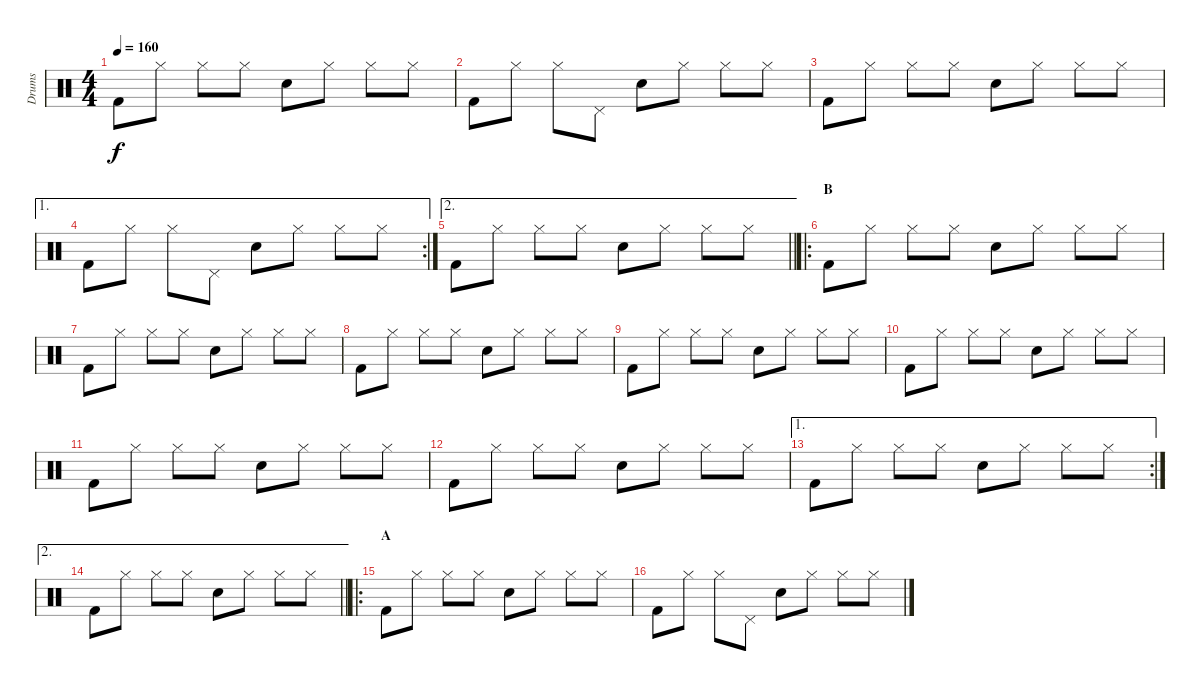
\track ("Drums" "Drums") {instrument percussion}
\staff {score}
\articulation defaults
\ts (4 4)
\tempo 160
\clef neutral
\ks c "Kick (hit) 2".8{dy f} "Hi-Hat (closed)".8 "Hi-Hat (closed)".8 "Hi-Hat (closed)".8 "Electric Snare (hit)".8 "Hi-Hat (closed)".8 "Hi-Hat (closed)".8 "Hi-Hat (closed)".8
|
"Kick (hit) 2".8 "Hi-Hat (closed)".8 "Hi-Hat (closed)".8 "Pedal Hi-Hat (hit)".8 "Electric Snare (hit)".8 "Hi-Hat (closed)".8 "Hi-Hat (closed)".8 "Hi-Hat (closed)".8 |
"Kick (hit) 2".8 "Hi-Hat (closed)".8 "Hi-Hat (closed)".8 "Hi-Hat (closed)".8 "Electric Snare (hit)".8 "Hi-Hat (closed)".8 "Hi-Hat (closed)".8 "Hi-Hat (closed)".8 |
\ae 1
\rc 2 "Kick (hit) 2".8 "Hi-Hat (closed)".8 "Hi-Hat (closed)".8 "Pedal Hi-Hat (hit)".8 "Electric Snare (hit)".8 "Hi-Hat (closed)".8 "Hi-Hat (closed)".8 "Hi-Hat (closed)".8
|
\ae 2
\barLineRight lightlight "Kick (hit) 2".8 "Hi-Hat (closed)".8 "Hi-Hat (closed)".8 "Hi-Hat (closed)".8 "Electric Snare (hit)".8 "Hi-Hat (closed)".8 "Hi-Hat (closed)".8 "Hi-Hat (closed)".8
|
\ro
\section ("" "B")
"Kick (hit) 2".8 "Hi-Hat (closed)".8 "Hi-Hat (closed)".8 "Hi-Hat (closed)".8 "Electric Snare (hit)".8 "Hi-Hat (closed)".8 "Hi-Hat (closed)".8 "Hi-Hat (closed)".8 |
"Kick (hit) 2".8 "Hi-Hat (closed)".8 "Hi-Hat (closed)".8 "Hi-Hat (closed)".8 "Electric Snare (hit)".8 "Hi-Hat (closed)".8 "Hi-Hat (closed)".8 "Hi-Hat (closed)".8 |
"Kick (hit) 2".8 "Hi-Hat (closed)".8 "Hi-Hat (closed)".8 "Hi-Hat (closed)".8 "Electric Snare (hit)".8 "Hi-Hat (closed)".8 "Hi-Hat (closed)".8 "Hi-Hat (closed)".8 |
"Kick (hit) 2".8 "Hi-Hat (closed)".8 "Hi-Hat (closed)".8 "Hi-Hat (closed)".8 "Electric Snare (hit)".8 "Hi-Hat (closed)".8 "Hi-Hat (closed)".8 "Hi-Hat (closed)".8 |
"Kick (hit) 2".8 "Hi-Hat (closed)".8 "Hi-Hat (closed)".8 "Hi-Hat (closed)".8 "Electric Snare (hit)".8 "Hi-Hat (closed)".8 "Hi-Hat (closed)".8 "Hi-Hat (closed)".8 |
"Kick (hit) 2".8 "Hi-Hat (closed)".8 "Hi-Hat (closed)".8 "Hi-Hat (closed)".8 "Electric Snare (hit)".8 "Hi-Hat (closed)".8 "Hi-Hat (closed)".8 "Hi-Hat (closed)".8 |
"Kick (hit) 2".8 "Hi-Hat (closed)".8 "Hi-Hat (closed)".8 "Hi-Hat (closed)".8 "Electric Snare (hit)".8 "Hi-Hat (closed)".8 "Hi-Hat (closed)".8 "Hi-Hat (closed)".8 |
\ae 1
\rc 2 "Kick (hit) 2".8 "Hi-Hat (closed)".8 "Hi-Hat (closed)".8 "Hi-Hat (closed)".8 "Electric Snare (hit)".8 "Hi-Hat (closed)".8 "Hi-Hat (closed)".8 "Hi-Hat (closed)".8
|
\ae 2
\barLineRight lightlight "Kick (hit) 2".8 "Hi-Hat (closed)".8 "Hi-Hat (closed)".8 "Hi-Hat (closed)".8 "Electric Snare (hit)".8 "Hi-Hat (closed)".8 "Hi-Hat (closed)".8 "Hi-Hat (closed)".8
|
\ro
\section ("" "A")
"Kick (hit) 2".8 "Hi-Hat (closed)".8 "Hi-Hat (closed)".8 "Hi-Hat (closed)".8 "Electric Snare (hit)".8 "Hi-Hat (closed)".8 "Hi-Hat (closed)".8 "Hi-Hat (closed)".8 |
"Kick (hit) 2".8 "Hi-Hat (closed)".8 "Hi-Hat (closed)".8 "Pedal Hi-Hat (hit)".8 "Electric Snare (hit)".8 "Hi-Hat (closed)".8 "Hi-Hat (closed)".8 "Hi-Hat (closed)".8
